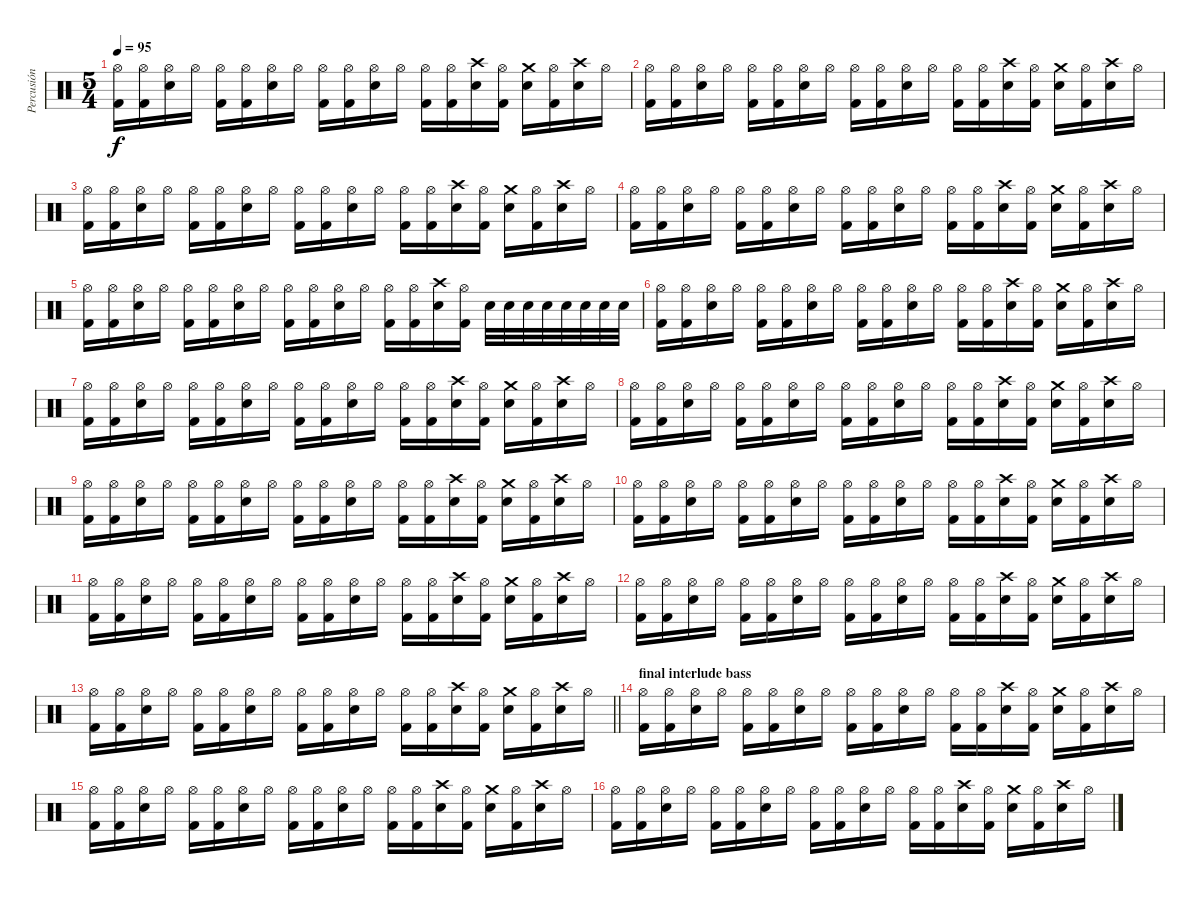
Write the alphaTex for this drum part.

\track ("Percusión" "Percusión") {instrument percussion}
\staff {score}
\articulation defaults
\ts (5 4)
\tempo 95
\clef neutral
\ks c
("Hi-Hat (open)" "Kick (hit) 2").16{dy f} ("Hi-Hat (open)" "Kick (hit) 2").16 ("Hi-Hat (open)" "Electric Snare (hit)").16 "Hi-Hat (open)".16 ("Hi-Hat (open)" "Kick (hit) 2").16 ("Hi-Hat (open)" "Kick (hit) 2").16 ("Hi-Hat (open)" "Electric Snare (hit)").16 "Hi-Hat (open)".16 ("Hi-Hat (open)" "Kick (hit) 2").16 ("Hi-Hat (open)" "Kick (hit) 2").16 ("Hi-Hat (open)" "Electric Snare (hit)").16 "Hi-Hat (open)".16 ("Hi-Hat (open)" "Kick (hit) 2").16 ("Hi-Hat (open)" "Kick (hit) 2").16 ("Crash high (hit)" "Electric Snare (hit)").16 ("Hi-Hat (open)" "Kick (hit) 2").16 ("Crash medium (hit)" "Electric Snare (hit)").16 ("Hi-Hat (open)" "Kick (hit) 2").16 ("Crash high (hit)" "Electric Snare (hit)").16 "Hi-Hat (open)".16 |
("Hi-Hat (open)" "Kick (hit) 2").16 ("Hi-Hat (open)" "Kick (hit) 2").16 ("Hi-Hat (open)" "Electric Snare (hit)").16 "Hi-Hat (open)".16 ("Hi-Hat (open)" "Kick (hit) 2").16 ("Hi-Hat (open)" "Kick (hit) 2").16 ("Hi-Hat (open)" "Electric Snare (hit)").16 "Hi-Hat (open)".16 ("Hi-Hat (open)" "Kick (hit) 2").16 ("Hi-Hat (open)" "Kick (hit) 2").16 ("Hi-Hat (open)" "Electric Snare (hit)").16 "Hi-Hat (open)".16 ("Hi-Hat (open)" "Kick (hit) 2").16 ("Hi-Hat (open)" "Kick (hit) 2").16 ("Crash high (hit)" "Electric Snare (hit)").16 ("Hi-Hat (open)" "Kick (hit) 2").16 ("Crash medium (hit)" "Electric Snare (hit)").16 ("Hi-Hat (open)" "Kick (hit) 2").16 ("Crash high (hit)" "Electric Snare (hit)").16 "Hi-Hat (open)".16 |
("Hi-Hat (open)" "Kick (hit) 2").16 ("Hi-Hat (open)" "Kick (hit) 2").16 ("Hi-Hat (open)" "Electric Snare (hit)").16 "Hi-Hat (open)".16 ("Hi-Hat (open)" "Kick (hit) 2").16 ("Hi-Hat (open)" "Kick (hit) 2").16 ("Hi-Hat (open)" "Electric Snare (hit)").16 "Hi-Hat (open)".16 ("Hi-Hat (open)" "Kick (hit) 2").16 ("Hi-Hat (open)" "Kick (hit) 2").16 ("Hi-Hat (open)" "Electric Snare (hit)").16 "Hi-Hat (open)".16 ("Hi-Hat (open)" "Kick (hit) 2").16 ("Hi-Hat (open)" "Kick (hit) 2").16 ("Crash high (hit)" "Electric Snare (hit)").16 ("Hi-Hat (open)" "Kick (hit) 2").16 ("Crash medium (hit)" "Electric Snare (hit)").16 ("Hi-Hat (open)" "Kick (hit) 2").16 ("Crash high (hit)" "Electric Snare (hit)").16 "Hi-Hat (open)".16 |
("Hi-Hat (open)" "Kick (hit) 2").16 ("Hi-Hat (open)" "Kick (hit) 2").16 ("Hi-Hat (open)" "Electric Snare (hit)").16 "Hi-Hat (open)".16 ("Hi-Hat (open)" "Kick (hit) 2").16 ("Hi-Hat (open)" "Kick (hit) 2").16 ("Hi-Hat (open)" "Electric Snare (hit)").16 "Hi-Hat (open)".16 ("Hi-Hat (open)" "Kick (hit) 2").16 ("Hi-Hat (open)" "Kick (hit) 2").16 ("Hi-Hat (open)" "Electric Snare (hit)").16 "Hi-Hat (open)".16 ("Hi-Hat (open)" "Kick (hit) 2").16 ("Hi-Hat (open)" "Kick (hit) 2").16 ("Crash high (hit)" "Electric Snare (hit)").16 ("Hi-Hat (open)" "Kick (hit) 2").16 ("Crash medium (hit)" "Electric Snare (hit)").16 ("Hi-Hat (open)" "Kick (hit) 2").16 ("Crash high (hit)" "Electric Snare (hit)").16 "Hi-Hat (open)".16 |
("Hi-Hat (open)" "Kick (hit) 2").16 ("Hi-Hat (open)" "Kick (hit) 2").16 ("Hi-Hat (open)" "Electric Snare (hit)").16 "Hi-Hat (open)".16 ("Hi-Hat (open)" "Kick (hit) 2").16 ("Hi-Hat (open)" "Kick (hit) 2").16 ("Hi-Hat (open)" "Electric Snare (hit)").16 "Hi-Hat (open)".16 ("Hi-Hat (open)" "Kick (hit) 2").16 ("Hi-Hat (open)" "Kick (hit) 2").16 ("Hi-Hat (open)" "Electric Snare (hit)").16 "Hi-Hat (open)".16 ("Hi-Hat (open)" "Kick (hit) 2").16 ("Hi-Hat (open)" "Kick (hit) 2").16 ("Crash high (hit)" "Electric Snare (hit)").16 ("Hi-Hat (open)" "Kick (hit) 2").16 "Electric Snare (hit)".32 "Electric Snare (hit)".32 "Electric Snare (hit)".32 "Electric Snare (hit)".32 "Electric Snare (hit)".32 "Electric Snare (hit)".32 "Electric Snare (hit)".32 "Electric Snare (hit)".32 |
("Hi-Hat (open)" "Kick (hit) 2").16 ("Hi-Hat (open)" "Kick (hit) 2").16 ("Hi-Hat (open)" "Electric Snare (hit)").16 "Hi-Hat (open)".16 ("Hi-Hat (open)" "Kick (hit) 2").16 ("Hi-Hat (open)" "Kick (hit) 2").16 ("Hi-Hat (open)" "Electric Snare (hit)").16 "Hi-Hat (open)".16 ("Hi-Hat (open)" "Kick (hit) 2").16 ("Hi-Hat (open)" "Kick (hit) 2").16 ("Hi-Hat (open)" "Electric Snare (hit)").16 "Hi-Hat (open)".16 ("Hi-Hat (open)" "Kick (hit) 2").16 ("Hi-Hat (open)" "Kick (hit) 2").16 ("Crash high (hit)" "Electric Snare (hit)").16 ("Hi-Hat (open)" "Kick (hit) 2").16 ("Crash medium (hit)" "Electric Snare (hit)").16 ("Hi-Hat (open)" "Kick (hit) 2").16 ("Crash high (hit)" "Electric Snare (hit)").16 "Hi-Hat (open)".16 |
("Hi-Hat (open)" "Kick (hit) 2").16 ("Hi-Hat (open)" "Kick (hit) 2").16 ("Hi-Hat (open)" "Electric Snare (hit)").16 "Hi-Hat (open)".16 ("Hi-Hat (open)" "Kick (hit) 2").16 ("Hi-Hat (open)" "Kick (hit) 2").16 ("Hi-Hat (open)" "Electric Snare (hit)").16 "Hi-Hat (open)".16 ("Hi-Hat (open)" "Kick (hit) 2").16 ("Hi-Hat (open)" "Kick (hit) 2").16 ("Hi-Hat (open)" "Electric Snare (hit)").16 "Hi-Hat (open)".16 ("Hi-Hat (open)" "Kick (hit) 2").16 ("Hi-Hat (open)" "Kick (hit) 2").16 ("Crash high (hit)" "Electric Snare (hit)").16 ("Hi-Hat (open)" "Kick (hit) 2").16 ("Crash medium (hit)" "Electric Snare (hit)").16 ("Hi-Hat (open)" "Kick (hit) 2").16 ("Crash high (hit)" "Electric Snare (hit)").16 "Hi-Hat (open)".16 |
("Hi-Hat (open)" "Kick (hit) 2").16 ("Hi-Hat (open)" "Kick (hit) 2").16 ("Hi-Hat (open)" "Electric Snare (hit)").16 "Hi-Hat (open)".16 ("Hi-Hat (open)" "Kick (hit) 2").16 ("Hi-Hat (open)" "Kick (hit) 2").16 ("Hi-Hat (open)" "Electric Snare (hit)").16 "Hi-Hat (open)".16 ("Hi-Hat (open)" "Kick (hit) 2").16 ("Hi-Hat (open)" "Kick (hit) 2").16 ("Hi-Hat (open)" "Electric Snare (hit)").16 "Hi-Hat (open)".16 ("Hi-Hat (open)" "Kick (hit) 2").16 ("Hi-Hat (open)" "Kick (hit) 2").16 ("Crash high (hit)" "Electric Snare (hit)").16 ("Hi-Hat (open)" "Kick (hit) 2").16 ("Crash medium (hit)" "Electric Snare (hit)").16 ("Hi-Hat (open)" "Kick (hit) 2").16 ("Crash high (hit)" "Electric Snare (hit)").16 "Hi-Hat (open)".16 |
("Hi-Hat (open)" "Kick (hit) 2").16 ("Hi-Hat (open)" "Kick (hit) 2").16 ("Hi-Hat (open)" "Electric Snare (hit)").16 "Hi-Hat (open)".16 ("Hi-Hat (open)" "Kick (hit) 2").16 ("Hi-Hat (open)" "Kick (hit) 2").16 ("Hi-Hat (open)" "Electric Snare (hit)").16 "Hi-Hat (open)".16 ("Hi-Hat (open)" "Kick (hit) 2").16 ("Hi-Hat (open)" "Kick (hit) 2").16 ("Hi-Hat (open)" "Electric Snare (hit)").16 "Hi-Hat (open)".16 ("Hi-Hat (open)" "Kick (hit) 2").16 ("Hi-Hat (open)" "Kick (hit) 2").16 ("Crash high (hit)" "Electric Snare (hit)").16 ("Hi-Hat (open)" "Kick (hit) 2").16 ("Crash medium (hit)" "Electric Snare (hit)").16 ("Hi-Hat (open)" "Kick (hit) 2").16 ("Crash high (hit)" "Electric Snare (hit)").16 "Hi-Hat (open)".16 |
("Hi-Hat (open)" "Kick (hit) 2").16 ("Hi-Hat (open)" "Kick (hit) 2").16 ("Hi-Hat (open)" "Electric Snare (hit)").16 "Hi-Hat (open)".16 ("Hi-Hat (open)" "Kick (hit) 2").16 ("Hi-Hat (open)" "Kick (hit) 2").16 ("Hi-Hat (open)" "Electric Snare (hit)").16 "Hi-Hat (open)".16 ("Hi-Hat (open)" "Kick (hit) 2").16 ("Hi-Hat (open)" "Kick (hit) 2").16 ("Hi-Hat (open)" "Electric Snare (hit)").16 "Hi-Hat (open)".16 ("Hi-Hat (open)" "Kick (hit) 2").16 ("Hi-Hat (open)" "Kick (hit) 2").16 ("Crash high (hit)" "Electric Snare (hit)").16 ("Hi-Hat (open)" "Kick (hit) 2").16 ("Crash medium (hit)" "Electric Snare (hit)").16 ("Hi-Hat (open)" "Kick (hit) 2").16 ("Crash high (hit)" "Electric Snare (hit)").16 "Hi-Hat (open)".16 |
("Hi-Hat (open)" "Kick (hit) 2").16 ("Hi-Hat (open)" "Kick (hit) 2").16 ("Hi-Hat (open)" "Electric Snare (hit)").16 "Hi-Hat (open)".16 ("Hi-Hat (open)" "Kick (hit) 2").16 ("Hi-Hat (open)" "Kick (hit) 2").16 ("Hi-Hat (open)" "Electric Snare (hit)").16 "Hi-Hat (open)".16 ("Hi-Hat (open)" "Kick (hit) 2").16 ("Hi-Hat (open)" "Kick (hit) 2").16 ("Hi-Hat (open)" "Electric Snare (hit)").16 "Hi-Hat (open)".16 ("Hi-Hat (open)" "Kick (hit) 2").16 ("Hi-Hat (open)" "Kick (hit) 2").16 ("Crash high (hit)" "Electric Snare (hit)").16 ("Hi-Hat (open)" "Kick (hit) 2").16 ("Crash medium (hit)" "Electric Snare (hit)").16 ("Hi-Hat (open)" "Kick (hit) 2").16 ("Crash high (hit)" "Electric Snare (hit)").16 "Hi-Hat (open)".16 |
("Hi-Hat (open)" "Kick (hit) 2").16 ("Hi-Hat (open)" "Kick (hit) 2").16 ("Hi-Hat (open)" "Electric Snare (hit)").16 "Hi-Hat (open)".16 ("Hi-Hat (open)" "Kick (hit) 2").16 ("Hi-Hat (open)" "Kick (hit) 2").16 ("Hi-Hat (open)" "Electric Snare (hit)").16 "Hi-Hat (open)".16 ("Hi-Hat (open)" "Kick (hit) 2").16 ("Hi-Hat (open)" "Kick (hit) 2").16 ("Hi-Hat (open)" "Electric Snare (hit)").16 "Hi-Hat (open)".16 ("Hi-Hat (open)" "Kick (hit) 2").16 ("Hi-Hat (open)" "Kick (hit) 2").16 ("Crash high (hit)" "Electric Snare (hit)").16 ("Hi-Hat (open)" "Kick (hit) 2").16 ("Crash medium (hit)" "Electric Snare (hit)").16 ("Hi-Hat (open)" "Kick (hit) 2").16 ("Crash high (hit)" "Electric Snare (hit)").16 "Hi-Hat (open)".16 |
\barLineRight lightlight
("Hi-Hat (open)" "Kick (hit) 2").16 ("Hi-Hat (open)" "Kick (hit) 2").16 ("Hi-Hat (open)" "Electric Snare (hit)").16 "Hi-Hat (open)".16 ("Hi-Hat (open)" "Kick (hit) 2").16 ("Hi-Hat (open)" "Kick (hit) 2").16 ("Hi-Hat (open)" "Electric Snare (hit)").16 "Hi-Hat (open)".16 ("Hi-Hat (open)" "Kick (hit) 2").16 ("Hi-Hat (open)" "Kick (hit) 2").16 ("Hi-Hat (open)" "Electric Snare (hit)").16 "Hi-Hat (open)".16 ("Hi-Hat (open)" "Kick (hit) 2").16 ("Hi-Hat (open)" "Kick (hit) 2").16 ("Crash high (hit)" "Electric Snare (hit)").16 ("Hi-Hat (open)" "Kick (hit) 2").16 ("Crash medium (hit)" "Electric Snare (hit)").16 ("Hi-Hat (open)" "Kick (hit) 2").16 ("Crash high (hit)" "Electric Snare (hit)").16 "Hi-Hat (open)".16 |
\section ("" "final interlude bass")
("Hi-Hat (open)" "Kick (hit) 2").16 ("Hi-Hat (open)" "Kick (hit) 2").16 ("Hi-Hat (open)" "Electric Snare (hit)").16 "Hi-Hat (open)".16 ("Hi-Hat (open)" "Kick (hit) 2").16 ("Hi-Hat (open)" "Kick (hit) 2").16 ("Hi-Hat (open)" "Electric Snare (hit)").16 "Hi-Hat (open)".16 ("Hi-Hat (open)" "Kick (hit) 2").16 ("Hi-Hat (open)" "Kick (hit) 2").16 ("Hi-Hat (open)" "Electric Snare (hit)").16 "Hi-Hat (open)".16 ("Hi-Hat (open)" "Kick (hit) 2").16 ("Hi-Hat (open)" "Kick (hit) 2").16 ("Crash high (hit)" "Electric Snare (hit)").16 ("Hi-Hat (open)" "Kick (hit) 2").16 ("Crash medium (hit)" "Electric Snare (hit)").16 ("Hi-Hat (open)" "Kick (hit) 2").16 ("Crash high (hit)" "Electric Snare (hit)").16 "Hi-Hat (open)".16 |
("Hi-Hat (open)" "Kick (hit) 2").16 ("Hi-Hat (open)" "Kick (hit) 2").16 ("Hi-Hat (open)" "Electric Snare (hit)").16 "Hi-Hat (open)".16 ("Hi-Hat (open)" "Kick (hit) 2").16 ("Hi-Hat (open)" "Kick (hit) 2").16 ("Hi-Hat (open)" "Electric Snare (hit)").16 "Hi-Hat (open)".16 ("Hi-Hat (open)" "Kick (hit) 2").16 ("Hi-Hat (open)" "Kick (hit) 2").16 ("Hi-Hat (open)" "Electric Snare (hit)").16 "Hi-Hat (open)".16 ("Hi-Hat (open)" "Kick (hit) 2").16 ("Hi-Hat (open)" "Kick (hit) 2").16 ("Crash high (hit)" "Electric Snare (hit)").16 ("Hi-Hat (open)" "Kick (hit) 2").16 ("Crash medium (hit)" "Electric Snare (hit)").16 ("Hi-Hat (open)" "Kick (hit) 2").16 ("Crash high (hit)" "Electric Snare (hit)").16 "Hi-Hat (open)".16 |
("Hi-Hat (open)" "Kick (hit) 2").16 ("Hi-Hat (open)" "Kick (hit) 2").16 ("Hi-Hat (open)" "Electric Snare (hit)").16 "Hi-Hat (open)".16 ("Hi-Hat (open)" "Kick (hit) 2").16 ("Hi-Hat (open)" "Kick (hit) 2").16 ("Hi-Hat (open)" "Electric Snare (hit)").16 "Hi-Hat (open)".16 ("Hi-Hat (open)" "Kick (hit) 2").16 ("Hi-Hat (open)" "Kick (hit) 2").16 ("Hi-Hat (open)" "Electric Snare (hit)").16 "Hi-Hat (open)".16 ("Hi-Hat (open)" "Kick (hit) 2").16 ("Hi-Hat (open)" "Kick (hit) 2").16 ("Crash high (hit)" "Electric Snare (hit)").16 ("Hi-Hat (open)" "Kick (hit) 2").16 ("Crash medium (hit)" "Electric Snare (hit)").16 ("Hi-Hat (open)" "Kick (hit) 2").16 ("Crash high (hit)" "Electric Snare (hit)").16 "Hi-Hat (open)".16
